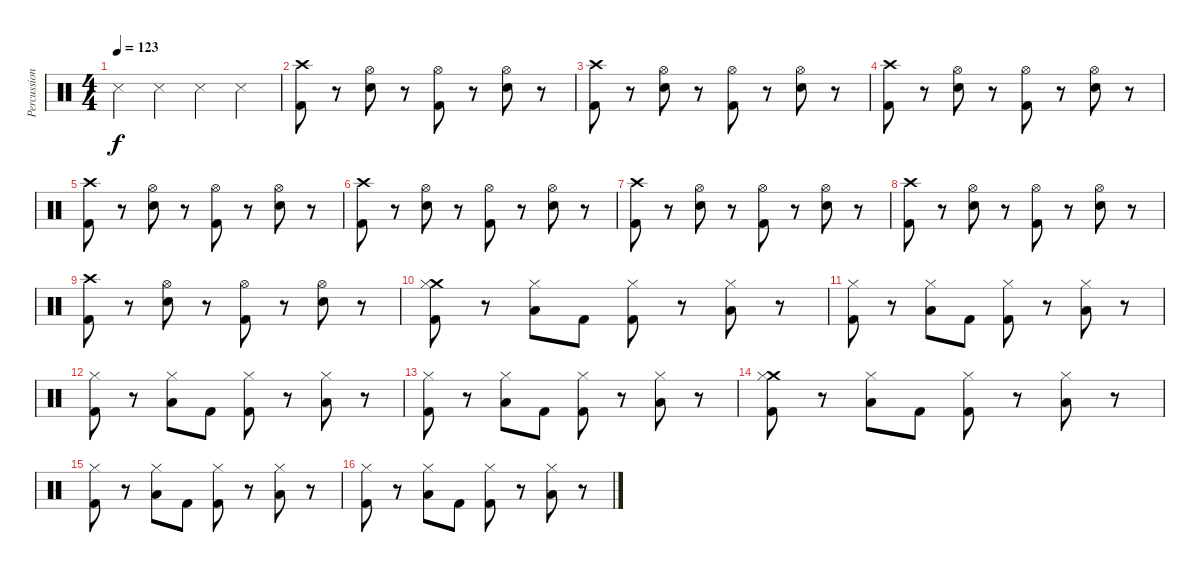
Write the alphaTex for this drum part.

\track ("Percussion" "Percussion") {instrument percussion}
\staff {score}
\articulation defaults
\ts (4 4)
\tempo 123
\clef neutral
\ks c "Snare (side stick) 3".4{dy f} "Snare (side stick) 3".4 "Snare (side stick) 3".4 "Snare (side stick) 3".4
|
\section ("" "")
("Crash high (hit)" "Kick (hit) 2").8 r.8 ("Hi-Hat (open)" "Electric Snare (hit)").8 r.8 ("Hi-Hat (open)" "Kick (hit) 2").8 r.8 ("Hi-Hat (open)" "Electric Snare (hit)").8 r.8 |
("Crash high (hit)" "Kick (hit) 2").8 r.8 ("Hi-Hat (open)" "Electric Snare (hit)").8 r.8 ("Hi-Hat (open)" "Kick (hit) 2").8 r.8 ("Hi-Hat (open)" "Electric Snare (hit)").8 r.8 |
("Crash high (hit)" "Kick (hit) 2").8 r.8 ("Hi-Hat (open)" "Electric Snare (hit)").8 r.8 ("Hi-Hat (open)" "Kick (hit) 2").8 r.8 ("Hi-Hat (open)" "Electric Snare (hit)").8 r.8 |
("Crash high (hit)" "Kick (hit) 2").8 r.8 ("Hi-Hat (open)" "Electric Snare (hit)").8 r.8 ("Hi-Hat (open)" "Kick (hit) 2").8 r.8 ("Hi-Hat (open)" "Electric Snare (hit)").8 r.8 |
("Crash high (hit)" "Kick (hit) 2").8 r.8 ("Hi-Hat (open)" "Electric Snare (hit)").8 r.8 ("Hi-Hat (open)" "Kick (hit) 2").8 r.8 ("Hi-Hat (open)" "Electric Snare (hit)").8 r.8 |
("Crash high (hit)" "Kick (hit) 2").8 r.8 ("Hi-Hat (open)" "Electric Snare (hit)").8 r.8 ("Hi-Hat (open)" "Kick (hit) 2").8 r.8 ("Hi-Hat (open)" "Electric Snare (hit)").8 r.8 |
("Crash high (hit)" "Kick (hit) 2").8 r.8 ("Hi-Hat (open)" "Electric Snare (hit)").8 r.8 ("Hi-Hat (open)" "Kick (hit) 2").8 r.8 ("Hi-Hat (open)" "Electric Snare (hit)").8 r.8 |
("Crash high (hit)" "Kick (hit) 2").8 r.8 ("Hi-Hat (open)" "Electric Snare (hit)").8 r.8 ("Hi-Hat (open)" "Kick (hit) 2").8 r.8 ("Hi-Hat (open)" "Electric Snare (hit)").8 r.8 |
\section ("" "")
("Crash medium (hit)" "Hi-Hat (closed)" "Kick (hit) 2").8 r.8 ("Hi-Hat (closed)" "Low Tom (hit)").8 "Kick (hit) 2".8 ("Hi-Hat (closed)" "Kick (hit) 2").8 r.8 ("Hi-Hat (closed)" "Low Tom (hit)").8 r.8 |
("Hi-Hat (closed)" "Kick (hit) 2").8 r.8 ("Hi-Hat (closed)" "Low Tom (hit)").8 "Kick (hit) 2".8 ("Hi-Hat (closed)" "Kick (hit) 2").8 r.8 ("Hi-Hat (closed)" "Low Tom (hit)").8 r.8 |
("Hi-Hat (closed)" "Kick (hit) 2").8 r.8 ("Hi-Hat (closed)" "Low Tom (hit)").8 "Kick (hit) 2".8 ("Hi-Hat (closed)" "Kick (hit) 2").8 r.8 ("Hi-Hat (closed)" "Low Tom (hit)").8 r.8 |
("Hi-Hat (closed)" "Kick (hit) 2").8 r.8 ("Hi-Hat (closed)" "Low Tom (hit)").8 "Kick (hit) 2".8 ("Hi-Hat (closed)" "Kick (hit) 2").8 r.8 ("Hi-Hat (closed)" "Low Tom (hit)").8 r.8 |
("Crash medium (hit)" "Hi-Hat (closed)" "Kick (hit) 2").8 r.8 ("Hi-Hat (closed)" "Low Tom (hit)").8 "Kick (hit) 2".8 ("Hi-Hat (closed)" "Kick (hit) 2").8 r.8 ("Hi-Hat (closed)" "Low Tom (hit)").8 r.8 |
("Hi-Hat (closed)" "Kick (hit) 2").8 r.8 ("Hi-Hat (closed)" "Low Tom (hit)").8 "Kick (hit) 2".8 ("Hi-Hat (closed)" "Kick (hit) 2").8 r.8 ("Hi-Hat (closed)" "Low Tom (hit)").8 r.8 |
("Hi-Hat (closed)" "Kick (hit) 2").8 r.8 ("Hi-Hat (closed)" "Low Tom (hit)").8 "Kick (hit) 2".8 ("Hi-Hat (closed)" "Kick (hit) 2").8 r.8 ("Hi-Hat (closed)" "Low Tom (hit)").8 r.8
